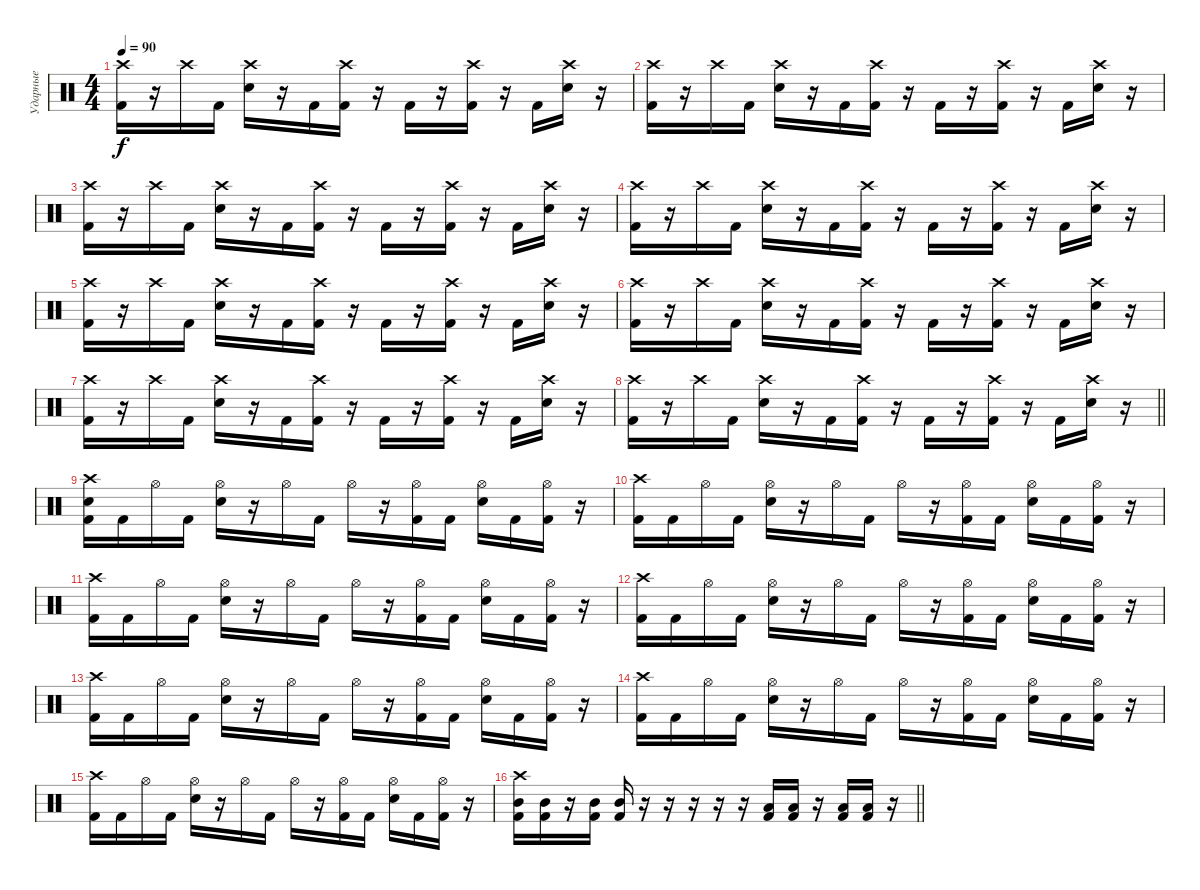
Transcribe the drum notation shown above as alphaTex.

\track ("Ударные" "Ударные") {instrument percussion}
\staff {score}
\articulation defaults
\ts (4 4)
\section ("" "")
\tempo 90
\clef neutral
\ks c
("Crash high (hit)" "Kick (hit) 2").16{dy f} r.16 "Crash high (hit)".16 "Kick (hit) 2".16 ("Crash high (hit)" "Electric Snare (hit)").16 r.16 "Kick (hit) 2".16 ("Crash high (hit)" "Kick (hit) 2").16 r.16 "Kick (hit) 2".16 r.16 ("Crash high (hit)" "Kick (hit) 2").16 r.16 "Kick (hit) 2".16 ("Crash high (hit)" "Electric Snare (hit)").16 r.16 |
("Crash high (hit)" "Kick (hit) 2").16 r.16 "Crash high (hit)".16 "Kick (hit) 2".16 ("Crash high (hit)" "Electric Snare (hit)").16 r.16 "Kick (hit) 2".16 ("Crash high (hit)" "Kick (hit) 2").16 r.16 "Kick (hit) 2".16 r.16 ("Crash high (hit)" "Kick (hit) 2").16 r.16 "Kick (hit) 2".16 ("Crash high (hit)" "Electric Snare (hit)").16 r.16 |
("Crash high (hit)" "Kick (hit) 2").16 r.16 "Crash high (hit)".16 "Kick (hit) 2".16 ("Crash high (hit)" "Electric Snare (hit)").16 r.16 "Kick (hit) 2".16 ("Crash high (hit)" "Kick (hit) 2").16 r.16 "Kick (hit) 2".16 r.16 ("Crash high (hit)" "Kick (hit) 2").16 r.16 "Kick (hit) 2".16 ("Crash high (hit)" "Electric Snare (hit)").16 r.16 |
("Crash high (hit)" "Kick (hit) 2").16 r.16 "Crash high (hit)".16 "Kick (hit) 2".16 ("Crash high (hit)" "Electric Snare (hit)").16 r.16 "Kick (hit) 2".16 ("Crash high (hit)" "Kick (hit) 2").16 r.16 "Kick (hit) 2".16 r.16 ("Crash high (hit)" "Kick (hit) 2").16 r.16 "Kick (hit) 2".16 ("Crash high (hit)" "Electric Snare (hit)").16 r.16 |
("Crash high (hit)" "Kick (hit) 2").16 r.16 "Crash high (hit)".16 "Kick (hit) 2".16 ("Crash high (hit)" "Electric Snare (hit)").16 r.16 "Kick (hit) 2".16 ("Crash high (hit)" "Kick (hit) 2").16 r.16 "Kick (hit) 2".16 r.16 ("Crash high (hit)" "Kick (hit) 2").16 r.16 "Kick (hit) 2".16 ("Crash high (hit)" "Electric Snare (hit)").16 r.16 |
("Crash high (hit)" "Kick (hit) 2").16 r.16 "Crash high (hit)".16 "Kick (hit) 2".16 ("Crash high (hit)" "Electric Snare (hit)").16 r.16 "Kick (hit) 2".16 ("Crash high (hit)" "Kick (hit) 2").16 r.16 "Kick (hit) 2".16 r.16 ("Crash high (hit)" "Kick (hit) 2").16 r.16 "Kick (hit) 2".16 ("Crash high (hit)" "Electric Snare (hit)").16 r.16 |
("Crash high (hit)" "Kick (hit) 2").16 r.16 "Crash high (hit)".16 "Kick (hit) 2".16 ("Crash high (hit)" "Electric Snare (hit)").16 r.16 "Kick (hit) 2".16 ("Crash high (hit)" "Kick (hit) 2").16 r.16 "Kick (hit) 2".16 r.16 ("Crash high (hit)" "Kick (hit) 2").16 r.16 "Kick (hit) 2".16 ("Crash high (hit)" "Electric Snare (hit)").16 r.16 |
\barLineRight lightlight
("Crash high (hit)" "Kick (hit) 2").16 r.16 "Crash high (hit)".16 "Kick (hit) 2".16 ("Crash high (hit)" "Electric Snare (hit)").16 r.16 "Kick (hit) 2".16 ("Crash high (hit)" "Kick (hit) 2").16 r.16 "Kick (hit) 2".16 r.16 ("Crash high (hit)" "Kick (hit) 2").16 r.16 "Kick (hit) 2".16 ("Crash high (hit)" "Electric Snare (hit)").16 r.16 |
\section ("" "")
("Crash high (hit)" "Electric Snare (hit)" "Kick (hit) 2").16 "Kick (hit) 2".16 "Hi-Hat (open)".16 "Kick (hit) 2".16 ("Hi-Hat (open)" "Electric Snare (hit)").16 r.16 "Hi-Hat (open)".16 "Kick (hit) 2".16 "Hi-Hat (open)".16 r.16 ("Hi-Hat (open)" "Kick (hit) 2").16 "Kick (hit) 2".16 ("Hi-Hat (open)" "Electric Snare (hit)").16 "Kick (hit) 2".16 ("Hi-Hat (open)" "Kick (hit) 2").16 r.16 |
("Crash high (hit)" "Kick (hit) 2").16 "Kick (hit) 2".16 "Hi-Hat (open)".16 "Kick (hit) 2".16 ("Hi-Hat (open)" "Electric Snare (hit)").16 r.16 "Hi-Hat (open)".16 "Kick (hit) 2".16 "Hi-Hat (open)".16 r.16 ("Hi-Hat (open)" "Kick (hit) 2").16 "Kick (hit) 2".16 ("Hi-Hat (open)" "Electric Snare (hit)").16 "Kick (hit) 2".16 ("Hi-Hat (open)" "Kick (hit) 2").16 r.16 |
("Crash high (hit)" "Kick (hit) 2").16 "Kick (hit) 2".16 "Hi-Hat (open)".16 "Kick (hit) 2".16 ("Hi-Hat (open)" "Electric Snare (hit)").16 r.16 "Hi-Hat (open)".16 "Kick (hit) 2".16 "Hi-Hat (open)".16 r.16 ("Hi-Hat (open)" "Kick (hit) 2").16 "Kick (hit) 2".16 ("Hi-Hat (open)" "Electric Snare (hit)").16 "Kick (hit) 2".16 ("Hi-Hat (open)" "Kick (hit) 2").16 r.16 |
("Crash high (hit)" "Kick (hit) 2").16 "Kick (hit) 2".16 "Hi-Hat (open)".16 "Kick (hit) 2".16 ("Hi-Hat (open)" "Electric Snare (hit)").16 r.16 "Hi-Hat (open)".16 "Kick (hit) 2".16 "Hi-Hat (open)".16 r.16 ("Hi-Hat (open)" "Kick (hit) 2").16 "Kick (hit) 2".16 ("Hi-Hat (open)" "Electric Snare (hit)").16 "Kick (hit) 2".16 ("Hi-Hat (open)" "Kick (hit) 2").16 r.16 |
("Crash high (hit)" "Kick (hit) 2").16 "Kick (hit) 2".16 "Hi-Hat (open)".16 "Kick (hit) 2".16 ("Hi-Hat (open)" "Electric Snare (hit)").16 r.16 "Hi-Hat (open)".16 "Kick (hit) 2".16 "Hi-Hat (open)".16 r.16 ("Hi-Hat (open)" "Kick (hit) 2").16 "Kick (hit) 2".16 ("Hi-Hat (open)" "Electric Snare (hit)").16 "Kick (hit) 2".16 ("Hi-Hat (open)" "Kick (hit) 2").16 r.16 |
("Crash high (hit)" "Kick (hit) 2").16 "Kick (hit) 2".16 "Hi-Hat (open)".16 "Kick (hit) 2".16 ("Hi-Hat (open)" "Electric Snare (hit)").16 r.16 "Hi-Hat (open)".16 "Kick (hit) 2".16 "Hi-Hat (open)".16 r.16 ("Hi-Hat (open)" "Kick (hit) 2").16 "Kick (hit) 2".16 ("Hi-Hat (open)" "Electric Snare (hit)").16 "Kick (hit) 2".16 ("Hi-Hat (open)" "Kick (hit) 2").16 r.16 |
("Crash high (hit)" "Kick (hit) 2").16 "Kick (hit) 2".16 "Hi-Hat (open)".16 "Kick (hit) 2".16 ("Hi-Hat (open)" "Electric Snare (hit)").16 r.16 "Hi-Hat (open)".16 "Kick (hit) 2".16 "Hi-Hat (open)".16 r.16 ("Hi-Hat (open)" "Kick (hit) 2").16 "Kick (hit) 2".16 ("Hi-Hat (open)" "Electric Snare (hit)").16 "Kick (hit) 2".16 ("Hi-Hat (open)" "Kick (hit) 2").16 r.16 |
\barLineRight lightlight
("Crash high (hit)" "Mid Tom (hit)" "Kick (hit) 2").16 ("Mid Tom (hit)" "Kick (hit) 2").16 r.16 ("Mid Tom (hit)" "Kick (hit) 2").16 ("Mid Tom (hit)" "Kick (hit) 2").16 r.16 r.16 r.16 r.16 r.16 ("Low Tom (hit)" "Kick (hit) 2").16 ("Low Tom (hit)" "Kick (hit) 2").16 r.16 ("Low Tom (hit)" "Kick (hit) 2").16 ("Low Tom (hit)" "Kick (hit) 2").16 r.16
